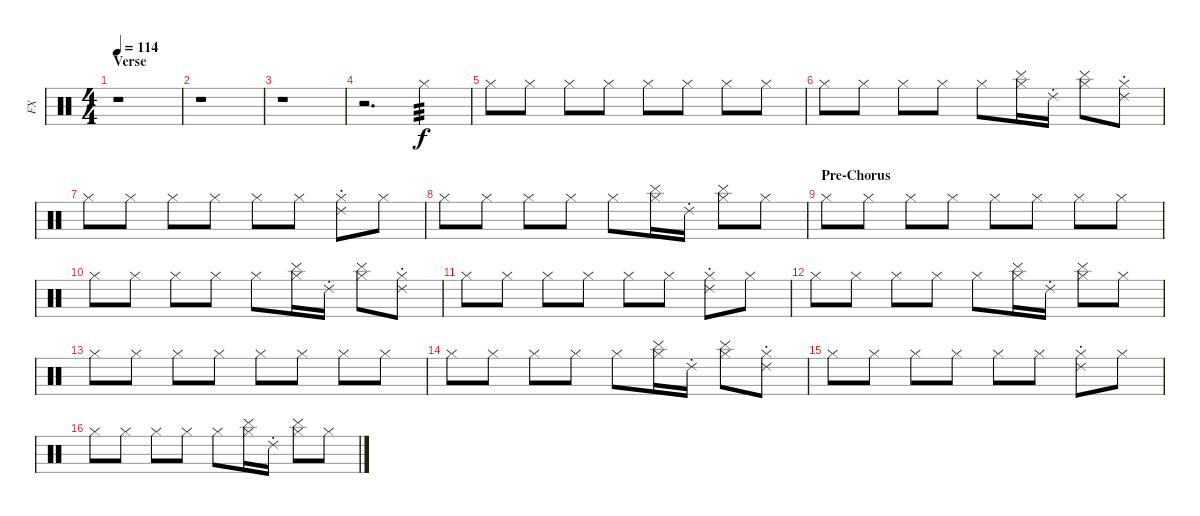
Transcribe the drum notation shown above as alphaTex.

\track ("FX" "FX") {instrument percussion}
\staff {score}
\articulation defaults
\ts (4 4)
\section ("" "Verse")
\tempo 114
\clef neutral
\ks c
r.1{dy f} |
r.1 |
r.1 |
r.2{d} "Hi-Hat (closed)".4{tp 3} |
"Hi-Hat (closed)".8 "Hi-Hat (closed)".8 "Hi-Hat (closed)".8 "Hi-Hat (closed)".8 "Hi-Hat (closed)".8 "Hi-Hat (closed)".8 "Hi-Hat (closed)".8 "Hi-Hat (closed)".8 |
"Hi-Hat (closed)".8 "Hi-Hat (closed)".8 "Hi-Hat (closed)".8 "Hi-Hat (closed)".8 "Hi-Hat (closed)".8 ("Hi-Hat (closed)" "Cymbal (hit)").16 "Ride (choke) 2".16 ("Hi-Hat (closed)" "Cymbal (hit)").8 ("Hi-Hat (closed)" "Ride (choke) 2").8 |
"Hi-Hat (closed)".8 "Hi-Hat (closed)".8 "Hi-Hat (closed)".8 "Hi-Hat (closed)".8 "Hi-Hat (closed)".8 "Hi-Hat (closed)".8 ("Hi-Hat (closed)" "Ride (choke) 2").8 "Hi-Hat (closed)".8 |
"Hi-Hat (closed)".8 "Hi-Hat (closed)".8 "Hi-Hat (closed)".8 "Hi-Hat (closed)".8 "Hi-Hat (closed)".8 ("Hi-Hat (closed)" "Cymbal (hit)").16 "Ride (choke) 2".16 ("Hi-Hat (closed)" "Cymbal (hit)").8 "Hi-Hat (closed)".8 |
\section ("" "Pre-Chorus")
"Hi-Hat (closed)".8 "Hi-Hat (closed)".8 "Hi-Hat (closed)".8 "Hi-Hat (closed)".8 "Hi-Hat (closed)".8 "Hi-Hat (closed)".8 "Hi-Hat (closed)".8 "Hi-Hat (closed)".8 |
"Hi-Hat (closed)".8 "Hi-Hat (closed)".8 "Hi-Hat (closed)".8 "Hi-Hat (closed)".8 "Hi-Hat (closed)".8 ("Hi-Hat (closed)" "Cymbal (hit)").16 "Ride (choke) 2".16 ("Hi-Hat (closed)" "Cymbal (hit)").8 ("Hi-Hat (closed)" "Ride (choke) 2").8 |
"Hi-Hat (closed)".8 "Hi-Hat (closed)".8 "Hi-Hat (closed)".8 "Hi-Hat (closed)".8 "Hi-Hat (closed)".8 "Hi-Hat (closed)".8 ("Hi-Hat (closed)" "Ride (choke) 2").8 "Hi-Hat (closed)".8 |
"Hi-Hat (closed)".8 "Hi-Hat (closed)".8 "Hi-Hat (closed)".8 "Hi-Hat (closed)".8 "Hi-Hat (closed)".8 ("Hi-Hat (closed)" "Cymbal (hit)").16 "Ride (choke) 2".16 ("Hi-Hat (closed)" "Cymbal (hit)").8 "Hi-Hat (closed)".8 |
"Hi-Hat (closed)".8 "Hi-Hat (closed)".8 "Hi-Hat (closed)".8 "Hi-Hat (closed)".8 "Hi-Hat (closed)".8 "Hi-Hat (closed)".8 "Hi-Hat (closed)".8 "Hi-Hat (closed)".8 |
"Hi-Hat (closed)".8 "Hi-Hat (closed)".8 "Hi-Hat (closed)".8 "Hi-Hat (closed)".8 "Hi-Hat (closed)".8 ("Hi-Hat (closed)" "Cymbal (hit)").16 "Ride (choke) 2".16 ("Hi-Hat (closed)" "Cymbal (hit)").8 ("Hi-Hat (closed)" "Ride (choke) 2").8 |
"Hi-Hat (closed)".8 "Hi-Hat (closed)".8 "Hi-Hat (closed)".8 "Hi-Hat (closed)".8 "Hi-Hat (closed)".8 "Hi-Hat (closed)".8 ("Hi-Hat (closed)" "Ride (choke) 2").8 "Hi-Hat (closed)".8 |
"Hi-Hat (closed)".8 "Hi-Hat (closed)".8 "Hi-Hat (closed)".8 "Hi-Hat (closed)".8 "Hi-Hat (closed)".8 ("Hi-Hat (closed)" "Cymbal (hit)").16 "Ride (choke) 2".16 ("Hi-Hat (closed)" "Cymbal (hit)").8 "Hi-Hat (closed)".8
